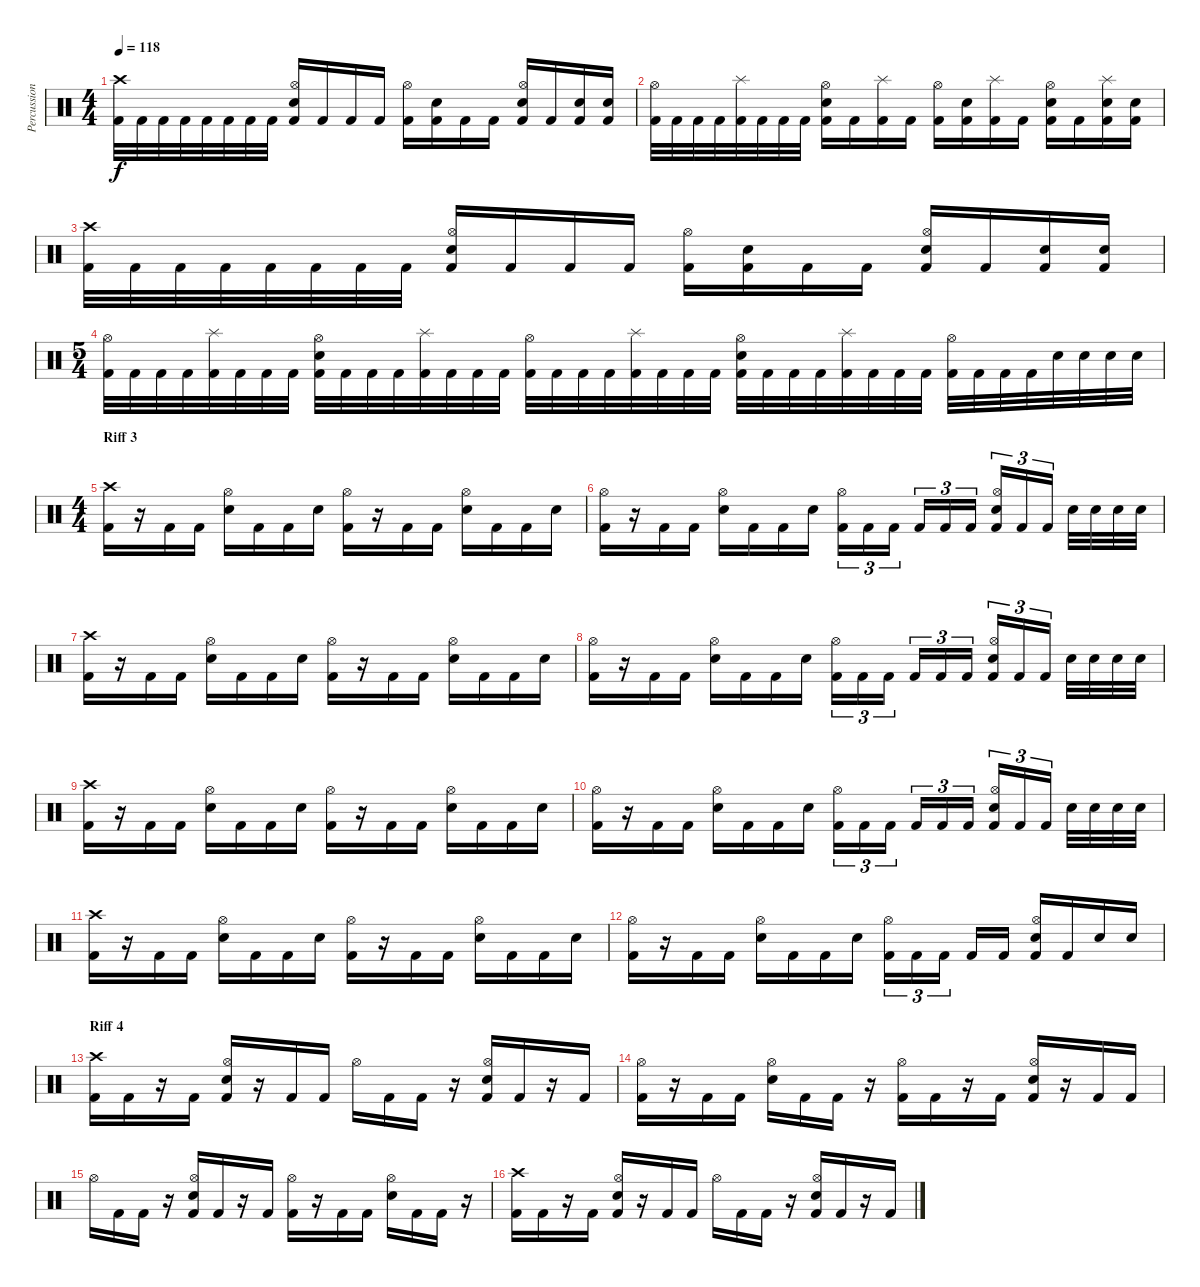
\track ("Percussion" "Percussion") {instrument percussion}
\staff {score}
\articulation defaults
\ts (4 4)
\tempo 118
\clef neutral
\ks c
("Crash high (hit)" "Kick (hit) 2").32{dy f} "Kick (hit) 2".32 "Kick (hit) 2".32 "Kick (hit) 2".32 "Kick (hit) 2".32 "Kick (hit) 2".32 "Kick (hit) 2".32 "Kick (hit) 2".32 ("Hi-Hat (open)" "Electric Snare (hit)" "Kick (hit) 2").16 "Kick (hit) 2".16 "Kick (hit) 2".16 "Kick (hit) 2".16 ("Hi-Hat (open)" "Kick (hit) 2").16 ("Electric Snare (hit)" "Kick (hit) 2").16 "Kick (hit) 2".16 "Kick (hit) 2".16 ("Hi-Hat (open)" "Electric Snare (hit)" "Kick (hit) 2").16 "Kick (hit) 2".16 ("Electric Snare (hit)" "Kick (hit) 2").16 ("Electric Snare (hit)" "Kick (hit) 2").16 |
("Hi-Hat (open)" "Kick (hit) 2").32 "Kick (hit) 2".32 "Kick (hit) 2".32 "Kick (hit) 2".32 ("Splash (hit)" "Kick (hit) 2").32 "Kick (hit) 2".32 "Kick (hit) 2".32 "Kick (hit) 2".32 ("Hi-Hat (open)" "Electric Snare (hit)" "Kick (hit) 2").16 "Kick (hit) 2".16 ("Splash (hit)" "Kick (hit) 2").16 "Kick (hit) 2".16 ("Hi-Hat (open)" "Kick (hit) 2").16 ("Electric Snare (hit)" "Kick (hit) 2").16 ("Splash (hit)" "Kick (hit) 2").16 "Kick (hit) 2".16 ("Hi-Hat (open)" "Electric Snare (hit)" "Kick (hit) 2").16 "Kick (hit) 2".16 ("Splash (hit)" "Electric Snare (hit)" "Kick (hit) 2").16 ("Electric Snare (hit)" "Kick (hit) 2").16 |
("Crash high (hit)" "Kick (hit) 2").32 "Kick (hit) 2".32 "Kick (hit) 2".32 "Kick (hit) 2".32 "Kick (hit) 2".32 "Kick (hit) 2".32 "Kick (hit) 2".32 "Kick (hit) 2".32 ("Hi-Hat (open)" "Electric Snare (hit)" "Kick (hit) 2").16 "Kick (hit) 2".16 "Kick (hit) 2".16 "Kick (hit) 2".16 ("Hi-Hat (open)" "Kick (hit) 2").16 ("Electric Snare (hit)" "Kick (hit) 2").16 "Kick (hit) 2".16 "Kick (hit) 2".16 ("Hi-Hat (open)" "Electric Snare (hit)" "Kick (hit) 2").16 "Kick (hit) 2".16 ("Electric Snare (hit)" "Kick (hit) 2").16 ("Electric Snare (hit)" "Kick (hit) 2").16 |
\ts (5 4)
("Hi-Hat (open)" "Kick (hit) 2").32 "Kick (hit) 2".32 "Kick (hit) 2".32 "Kick (hit) 2".32 ("Splash (hit)" "Kick (hit) 2").32 "Kick (hit) 2".32 "Kick (hit) 2".32 "Kick (hit) 2".32 ("Hi-Hat (open)" "Electric Snare (hit)" "Kick (hit) 2").32 "Kick (hit) 2".32 "Kick (hit) 2".32 "Kick (hit) 2".32 ("Splash (hit)" "Kick (hit) 2").32 "Kick (hit) 2".32 "Kick (hit) 2".32 "Kick (hit) 2".32 ("Hi-Hat (open)" "Kick (hit) 2").32 "Kick (hit) 2".32 "Kick (hit) 2".32 "Kick (hit) 2".32 ("Splash (hit)" "Kick (hit) 2").32 "Kick (hit) 2".32 "Kick (hit) 2".32 "Kick (hit) 2".32 ("Hi-Hat (open)" "Electric Snare (hit)" "Kick (hit) 2").32 "Kick (hit) 2".32 "Kick (hit) 2".32 "Kick (hit) 2".32 ("Splash (hit)" "Kick (hit) 2").32 "Kick (hit) 2".32 "Kick (hit) 2".32 "Kick (hit) 2".32 ("Hi-Hat (open)" "Kick (hit) 2").32 "Kick (hit) 2".32 "Kick (hit) 2".32 "Kick (hit) 2".32 "Electric Snare (hit)".32 "Electric Snare (hit)".32 "Electric Snare (hit)".32 "Electric Snare (hit)".32 |
\ts (4 4)
\section ("" "Riff 3")
("Crash high (hit)" "Kick (hit) 2").16 r.16 "Kick (hit) 2".16 "Kick (hit) 2".16 ("Hi-Hat (open)" "Electric Snare (hit)").16 "Kick (hit) 2".16 "Kick (hit) 2".16 "Electric Snare (hit)".16 ("Hi-Hat (open)" "Kick (hit) 2").16 r.16 "Kick (hit) 2".16 "Kick (hit) 2".16 ("Hi-Hat (open)" "Electric Snare (hit)").16 "Kick (hit) 2".16 "Kick (hit) 2".16 "Electric Snare (hit)".16 |
("Hi-Hat (open)" "Kick (hit) 2").16 r.16 "Kick (hit) 2".16 "Kick (hit) 2".16 ("Hi-Hat (open)" "Electric Snare (hit)").16 "Kick (hit) 2".16 "Kick (hit) 2".16 "Electric Snare (hit)".16 ("Hi-Hat (open)" "Kick (hit) 2").16{tu (3 2)} "Kick (hit) 2".16{tu (3 2)} "Kick (hit) 2".16{tu (3 2)} "Kick (hit) 2".16{tu (3 2)} "Kick (hit) 2".16{tu (3 2)} "Kick (hit) 2".16{tu (3 2)} ("Hi-Hat (open)" "Electric Snare (hit)" "Kick (hit) 2").16{tu (3 2)} "Kick (hit) 2".16{tu (3 2)} "Kick (hit) 2".16{tu (3 2)} "Electric Snare (hit)".32 "Electric Snare (hit)".32 "Electric Snare (hit)".32 "Electric Snare (hit)".32 |
("Crash high (hit)" "Kick (hit) 2").16 r.16 "Kick (hit) 2".16 "Kick (hit) 2".16 ("Hi-Hat (open)" "Electric Snare (hit)").16 "Kick (hit) 2".16 "Kick (hit) 2".16 "Electric Snare (hit)".16 ("Hi-Hat (open)" "Kick (hit) 2").16 r.16 "Kick (hit) 2".16 "Kick (hit) 2".16 ("Hi-Hat (open)" "Electric Snare (hit)").16 "Kick (hit) 2".16 "Kick (hit) 2".16 "Electric Snare (hit)".16 |
("Hi-Hat (open)" "Kick (hit) 2").16 r.16 "Kick (hit) 2".16 "Kick (hit) 2".16 ("Hi-Hat (open)" "Electric Snare (hit)").16 "Kick (hit) 2".16 "Kick (hit) 2".16 "Electric Snare (hit)".16 ("Hi-Hat (open)" "Kick (hit) 2").16{tu (3 2)} "Kick (hit) 2".16{tu (3 2)} "Kick (hit) 2".16{tu (3 2)} "Kick (hit) 2".16{tu (3 2)} "Kick (hit) 2".16{tu (3 2)} "Kick (hit) 2".16{tu (3 2)} ("Hi-Hat (open)" "Electric Snare (hit)" "Kick (hit) 2").16{tu (3 2)} "Kick (hit) 2".16{tu (3 2)} "Kick (hit) 2".16{tu (3 2)} "Electric Snare (hit)".32 "Electric Snare (hit)".32 "Electric Snare (hit)".32 "Electric Snare (hit)".32 |
("Crash high (hit)" "Kick (hit) 2").16 r.16 "Kick (hit) 2".16 "Kick (hit) 2".16 ("Hi-Hat (open)" "Electric Snare (hit)").16 "Kick (hit) 2".16 "Kick (hit) 2".16 "Electric Snare (hit)".16 ("Hi-Hat (open)" "Kick (hit) 2").16 r.16 "Kick (hit) 2".16 "Kick (hit) 2".16 ("Hi-Hat (open)" "Electric Snare (hit)").16 "Kick (hit) 2".16 "Kick (hit) 2".16 "Electric Snare (hit)".16 |
("Hi-Hat (open)" "Kick (hit) 2").16 r.16 "Kick (hit) 2".16 "Kick (hit) 2".16 ("Hi-Hat (open)" "Electric Snare (hit)").16 "Kick (hit) 2".16 "Kick (hit) 2".16 "Electric Snare (hit)".16 ("Hi-Hat (open)" "Kick (hit) 2").16{tu (3 2)} "Kick (hit) 2".16{tu (3 2)} "Kick (hit) 2".16{tu (3 2)} "Kick (hit) 2".16{tu (3 2)} "Kick (hit) 2".16{tu (3 2)} "Kick (hit) 2".16{tu (3 2)} ("Hi-Hat (open)" "Electric Snare (hit)" "Kick (hit) 2").16{tu (3 2)} "Kick (hit) 2".16{tu (3 2)} "Kick (hit) 2".16{tu (3 2)} "Electric Snare (hit)".32 "Electric Snare (hit)".32 "Electric Snare (hit)".32 "Electric Snare (hit)".32 |
("Crash high (hit)" "Kick (hit) 2").16 r.16 "Kick (hit) 2".16 "Kick (hit) 2".16 ("Hi-Hat (open)" "Electric Snare (hit)").16 "Kick (hit) 2".16 "Kick (hit) 2".16 "Electric Snare (hit)".16 ("Hi-Hat (open)" "Kick (hit) 2").16 r.16 "Kick (hit) 2".16 "Kick (hit) 2".16 ("Hi-Hat (open)" "Electric Snare (hit)").16 "Kick (hit) 2".16 "Kick (hit) 2".16 "Electric Snare (hit)".16 |
("Hi-Hat (open)" "Kick (hit) 2").16 r.16 "Kick (hit) 2".16 "Kick (hit) 2".16 ("Hi-Hat (open)" "Electric Snare (hit)").16 "Kick (hit) 2".16 "Kick (hit) 2".16 "Electric Snare (hit)".16 ("Hi-Hat (open)" "Kick (hit) 2").16{tu (3 2)} "Kick (hit) 2".16{tu (3 2)} "Kick (hit) 2".16{tu (3 2)} "Kick (hit) 2".16 "Kick (hit) 2".16 ("Hi-Hat (open)" "Electric Snare (hit)" "Kick (hit) 2").16 "Kick (hit) 2".16 "Electric Snare (hit)".16 "Electric Snare (hit)".16 |
\section ("" "Riff 4")
("Crash high (hit)" "Kick (hit) 2").16 "Kick (hit) 2".16 r.16 "Kick (hit) 2".16 ("Hi-Hat (open)" "Electric Snare (hit)" "Kick (hit) 2").16 r.16 "Kick (hit) 2".16 "Kick (hit) 2".16 "Hi-Hat (open)".16 "Kick (hit) 2".16 "Kick (hit) 2".16 r.16 ("Hi-Hat (open)" "Electric Snare (hit)" "Kick (hit) 2").16 "Kick (hit) 2".16 r.16 "Kick (hit) 2".16 |
("Hi-Hat (open)" "Kick (hit) 2").16 r.16 "Kick (hit) 2".16 "Kick (hit) 2".16 ("Hi-Hat (open)" "Electric Snare (hit)").16 "Kick (hit) 2".16 "Kick (hit) 2".16 r.16 ("Hi-Hat (open)" "Kick (hit) 2").16 "Kick (hit) 2".16 r.16 "Kick (hit) 2".16 ("Hi-Hat (open)" "Electric Snare (hit)" "Kick (hit) 2").16 r.16 "Kick (hit) 2".16 "Kick (hit) 2".16 |
"Hi-Hat (open)".16 "Kick (hit) 2".16 "Kick (hit) 2".16 r.16 ("Hi-Hat (open)" "Electric Snare (hit)" "Kick (hit) 2").16 "Kick (hit) 2".16 r.16 "Kick (hit) 2".16 ("Hi-Hat (open)" "Kick (hit) 2").16 r.16 "Kick (hit) 2".16 "Kick (hit) 2".16 ("Hi-Hat (open)" "Electric Snare (hit)").16 "Kick (hit) 2".16 "Kick (hit) 2".16 r.16 |
("Crash high (hit)" "Kick (hit) 2").16 "Kick (hit) 2".16 r.16 "Kick (hit) 2".16 ("Hi-Hat (open)" "Electric Snare (hit)" "Kick (hit) 2").16 r.16 "Kick (hit) 2".16 "Kick (hit) 2".16 "Hi-Hat (open)".16 "Kick (hit) 2".16 "Kick (hit) 2".16 r.16 ("Hi-Hat (open)" "Electric Snare (hit)" "Kick (hit) 2").16 "Kick (hit) 2".16 r.16 "Kick (hit) 2".16
